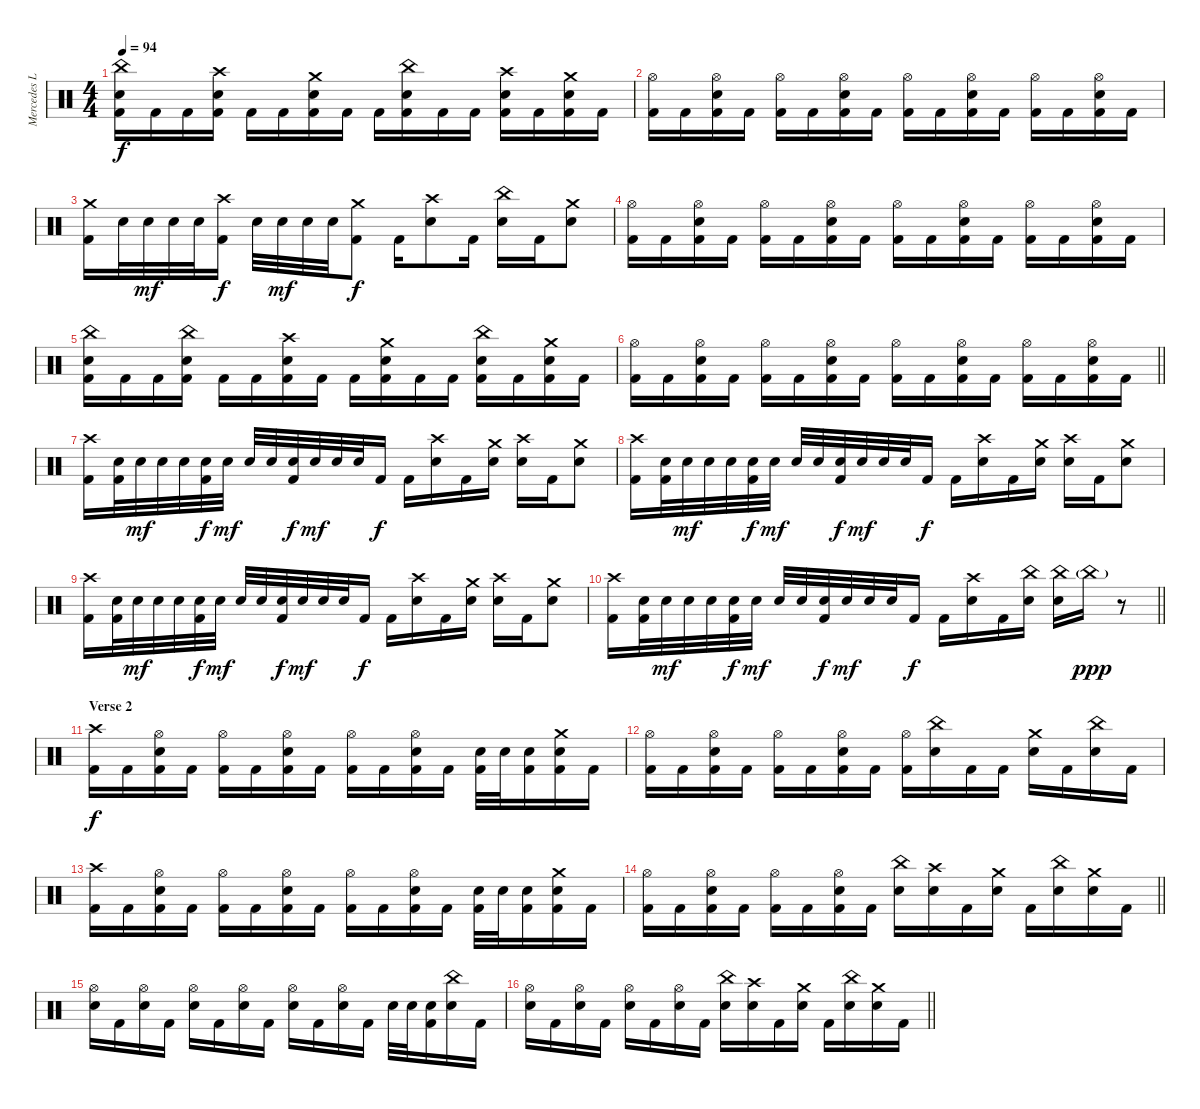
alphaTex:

\track ("Mercedes Lander" "Mercedes L") {instrument percussion}
\staff {score}
\articulation defaults
\ts (4 4)
\tempo 94
\clef neutral
\ks c
("China (hit)" "Snare (hit) 2" "Kick (hit) 2").16{dy f} "Kick (hit) 2".16 "Kick (hit) 2".16 ("Crash high (hit)" "Snare (hit) 2" "Kick (hit) 2").16 "Kick (hit) 2".16 "Kick (hit) 2".16 ("Crash medium (hit)" "Snare (hit) 2" "Kick (hit) 2").16 "Kick (hit) 2".16 "Kick (hit) 2".16 ("China (hit)" "Snare (hit) 2" "Kick (hit) 2").16 "Kick (hit) 2".16 "Kick (hit) 2".16 ("Crash high (hit)" "Snare (hit) 2" "Kick (hit) 2").16 "Kick (hit) 2".16 ("Crash medium (hit)" "Snare (hit) 2" "Kick (hit) 2").16 "Kick (hit) 2".16 |
("Hi-Hat (open)" "Kick (hit) 2").16 "Kick (hit) 2".16 ("Hi-Hat (open)" "Snare (hit) 2" "Kick (hit) 2").16 "Kick (hit) 2".16 ("Hi-Hat (open)" "Kick (hit) 2").16 "Kick (hit) 2".16 ("Hi-Hat (open)" "Snare (hit) 2" "Kick (hit) 2").16 "Kick (hit) 2".16 ("Hi-Hat (open)" "Kick (hit) 2").16 "Kick (hit) 2".16 ("Hi-Hat (open)" "Snare (hit) 2" "Kick (hit) 2").16 "Kick (hit) 2".16 ("Hi-Hat (open)" "Kick (hit) 2").16 "Kick (hit) 2".16 ("Hi-Hat (open)" "Snare (hit) 2" "Kick (hit) 2").16 "Kick (hit) 2".16 |
("Crash medium (hit)" "Kick (hit) 2").16 "Snare (hit) 2".32 "Snare (hit) 2".32{dy mf} "Snare (hit) 2".32 "Snare (hit) 2".32 ("Crash high (hit)" "Kick (hit) 2").16{dy f} "Snare (hit) 2".32 "Snare (hit) 2".32{dy mf} "Snare (hit) 2".32 "Snare (hit) 2".32 ("Crash medium (hit)" "Kick (hit) 2").8{dy f} "Kick (hit) 2".16 ("Crash high (hit)" "Snare (hit) 2").8 "Kick (hit) 2".16 ("China (hit)" "Snare (hit) 2").16 "Kick (hit) 2".16 ("Crash medium (hit)" "Snare (hit) 2").8 |
("Hi-Hat (open)" "Kick (hit) 2").16 "Kick (hit) 2".16 ("Hi-Hat (open)" "Snare (hit) 2" "Kick (hit) 2").16 "Kick (hit) 2".16 ("Hi-Hat (open)" "Kick (hit) 2").16 "Kick (hit) 2".16 ("Hi-Hat (open)" "Snare (hit) 2" "Kick (hit) 2").16 "Kick (hit) 2".16 ("Hi-Hat (open)" "Kick (hit) 2").16 "Kick (hit) 2".16 ("Hi-Hat (open)" "Snare (hit) 2" "Kick (hit) 2").16 "Kick (hit) 2".16 ("Hi-Hat (open)" "Kick (hit) 2").16 "Kick (hit) 2".16 ("Hi-Hat (open)" "Snare (hit) 2" "Kick (hit) 2").16 "Kick (hit) 2".16 |
("China (hit)" "Snare (hit) 2" "Kick (hit) 2").16 "Kick (hit) 2".16 "Kick (hit) 2".16 ("China (hit)" "Snare (hit) 2" "Kick (hit) 2").16 "Kick (hit) 2".16 "Kick (hit) 2".16 ("Crash high (hit)" "Snare (hit) 2" "Kick (hit) 2").16 "Kick (hit) 2".16 "Kick (hit) 2".16 ("Crash medium (hit)" "Snare (hit) 2" "Kick (hit) 2").16 "Kick (hit) 2".16 "Kick (hit) 2".16 ("China (hit)" "Snare (hit) 2" "Kick (hit) 2").16 "Kick (hit) 2".16 ("Crash medium (hit)" "Snare (hit) 2" "Kick (hit) 2").16 "Kick (hit) 2".16 |
\barLineRight lightlight
("Hi-Hat (open)" "Kick (hit) 2").16 "Kick (hit) 2".16 ("Hi-Hat (open)" "Snare (hit) 2" "Kick (hit) 2").16 "Kick (hit) 2".16 ("Hi-Hat (open)" "Kick (hit) 2").16 "Kick (hit) 2".16 ("Hi-Hat (open)" "Snare (hit) 2" "Kick (hit) 2").16 "Kick (hit) 2".16 ("Hi-Hat (open)" "Kick (hit) 2").16 "Kick (hit) 2".16 ("Hi-Hat (open)" "Snare (hit) 2" "Kick (hit) 2").16 "Kick (hit) 2".16 ("Hi-Hat (open)" "Kick (hit) 2").16 "Kick (hit) 2".16 ("Hi-Hat (open)" "Snare (hit) 2" "Kick (hit) 2").16 "Kick (hit) 2".16 |
("Crash high (hit)" "Kick (hit) 2").16 ("Snare (hit) 2" "Kick (hit) 2").32 "Snare (hit) 2".32{dy mf} "Snare (hit) 2".32 "Snare (hit) 2".32 ("Snare (hit) 2" "Kick (hit) 2").32{dy f} "Snare (hit) 2".32{dy mf} "Snare (hit) 2".32 "Snare (hit) 2".32 ("Snare (hit) 2" "Kick (hit) 2").32{dy f} "Snare (hit) 2".32{dy mf} "Snare (hit) 2".32 "Snare (hit) 2".32 "Kick (hit) 2".16{dy f} "Kick (hit) 2".16 ("Crash high (hit)" "Snare (hit) 2").16 "Kick (hit) 2".16 ("Crash medium (hit)" "Snare (hit) 2").16 ("Crash high (hit)" "Snare (hit) 2").16 "Kick (hit) 2".16 ("Crash medium (hit)" "Snare (hit) 2").8 |
("Crash high (hit)" "Kick (hit) 2").16 ("Snare (hit) 2" "Kick (hit) 2").32 "Snare (hit) 2".32{dy mf} "Snare (hit) 2".32 "Snare (hit) 2".32 ("Snare (hit) 2" "Kick (hit) 2").32{dy f} "Snare (hit) 2".32{dy mf} "Snare (hit) 2".32 "Snare (hit) 2".32 ("Snare (hit) 2" "Kick (hit) 2").32{dy f} "Snare (hit) 2".32{dy mf} "Snare (hit) 2".32 "Snare (hit) 2".32 "Kick (hit) 2".16{dy f} "Kick (hit) 2".16 ("Crash high (hit)" "Snare (hit) 2").16 "Kick (hit) 2".16 ("Crash medium (hit)" "Snare (hit) 2").16 ("Crash high (hit)" "Snare (hit) 2").16 "Kick (hit) 2".16 ("Crash medium (hit)" "Snare (hit) 2").8 |
("Crash high (hit)" "Kick (hit) 2").16 ("Snare (hit) 2" "Kick (hit) 2").32 "Snare (hit) 2".32{dy mf} "Snare (hit) 2".32 "Snare (hit) 2".32 ("Snare (hit) 2" "Kick (hit) 2").32{dy f} "Snare (hit) 2".32{dy mf} "Snare (hit) 2".32 "Snare (hit) 2".32 ("Snare (hit) 2" "Kick (hit) 2").32{dy f} "Snare (hit) 2".32{dy mf} "Snare (hit) 2".32 "Snare (hit) 2".32 "Kick (hit) 2".16{dy f} "Kick (hit) 2".16 ("Crash high (hit)" "Snare (hit) 2").16 "Kick (hit) 2".16 ("Crash medium (hit)" "Snare (hit) 2").16 ("Crash high (hit)" "Snare (hit) 2").16 "Kick (hit) 2".16 ("Crash medium (hit)" "Snare (hit) 2").8 |
\barLineRight lightlight
("Crash high (hit)" "Kick (hit) 2").16 ("Snare (hit) 2" "Kick (hit) 2").32 "Snare (hit) 2".32{dy mf} "Snare (hit) 2".32 "Snare (hit) 2".32 ("Snare (hit) 2" "Kick (hit) 2").32{dy f} "Snare (hit) 2".32{dy mf} "Snare (hit) 2".32 "Snare (hit) 2".32 ("Snare (hit) 2" "Kick (hit) 2").32{dy f} "Snare (hit) 2".32{dy mf} "Snare (hit) 2".32 "Snare (hit) 2".32 "Kick (hit) 2".16{dy f} "Kick (hit) 2".16 ("Crash high (hit)" "Snare (hit) 2").16 "Kick (hit) 2".16 ("China (hit)" "Snare (hit) 2").16 ("China (hit)" "Snare (hit) 2").16 "China (hit)"{g}.16{dy ppp} r.8 |
\section ("" "Verse 2")
("Crash high (hit)" "Kick (hit) 2").16{dy f} "Kick (hit) 2".16 ("Hi-Hat (open)" "Snare (hit) 2" "Kick (hit) 2").16 "Kick (hit) 2".16 ("Hi-Hat (open)" "Kick (hit) 2").16 "Kick (hit) 2".16 ("Hi-Hat (open)" "Snare (hit) 2" "Kick (hit) 2").16 "Kick (hit) 2".16 ("Hi-Hat (open)" "Kick (hit) 2").16 "Kick (hit) 2".16 ("Hi-Hat (open)" "Snare (hit) 2" "Kick (hit) 2").16 "Kick (hit) 2".16 ("Snare (hit) 2" "Kick (hit) 2").32 "Snare (hit) 2".32 ("Snare (hit) 2" "Kick (hit) 2").16 ("Crash medium (hit)" "Snare (hit) 2" "Kick (hit) 2").16 "Kick (hit) 2".16 |
("Hi-Hat (open)" "Kick (hit) 2").16 "Kick (hit) 2".16 ("Hi-Hat (open)" "Snare (hit) 2" "Kick (hit) 2").16 "Kick (hit) 2".16 ("Hi-Hat (open)" "Kick (hit) 2").16 "Kick (hit) 2".16 ("Hi-Hat (open)" "Snare (hit) 2" "Kick (hit) 2").16 "Kick (hit) 2".16 ("Hi-Hat (open)" "Kick (hit) 2").16 ("China (hit)" "Snare (hit) 2").16 "Kick (hit) 2".16 "Kick (hit) 2".16 ("Crash medium (hit)" "Snare (hit) 2").16 "Kick (hit) 2".16 ("China (hit)" "Snare (hit) 2").16 "Kick (hit) 2".16 |
("Crash high (hit)" "Kick (hit) 2").16 "Kick (hit) 2".16 ("Hi-Hat (open)" "Snare (hit) 2" "Kick (hit) 2").16 "Kick (hit) 2".16 ("Hi-Hat (open)" "Kick (hit) 2").16 "Kick (hit) 2".16 ("Hi-Hat (open)" "Snare (hit) 2" "Kick (hit) 2").16 "Kick (hit) 2".16 ("Hi-Hat (open)" "Kick (hit) 2").16 "Kick (hit) 2".16 ("Hi-Hat (open)" "Snare (hit) 2" "Kick (hit) 2").16 "Kick (hit) 2".16 ("Snare (hit) 2" "Kick (hit) 2").32 "Snare (hit) 2".32 ("Snare (hit) 2" "Kick (hit) 2").16 ("Crash medium (hit)" "Snare (hit) 2" "Kick (hit) 2").16 "Kick (hit) 2".16 |
\barLineRight lightlight
("Hi-Hat (open)" "Kick (hit) 2").16 "Kick (hit) 2".16 ("Hi-Hat (open)" "Snare (hit) 2" "Kick (hit) 2").16 "Kick (hit) 2".16 ("Hi-Hat (open)" "Kick (hit) 2").16 "Kick (hit) 2".16 ("Hi-Hat (open)" "Snare (hit) 2" "Kick (hit) 2").16 "Kick (hit) 2".16 ("China (hit)" "Snare (hit) 2").16 ("Crash high (hit)" "Snare (hit) 2").16 "Kick (hit) 2".16 ("Crash medium (hit)" "Snare (hit) 2").16 "Kick (hit) 2".16 ("China (hit)" "Snare (hit) 2").16 ("Crash medium (hit)" "Snare (hit) 2").16 "Kick (hit) 2".16 |
("Hi-Hat (open)" "Snare (hit) 2").16 "Kick (hit) 2".16 ("Hi-Hat (open)" "Snare (hit) 2").16 "Kick (hit) 2".16 ("Hi-Hat (open)" "Snare (hit) 2").16 "Kick (hit) 2".16 ("Hi-Hat (open)" "Snare (hit) 2").16 "Kick (hit) 2".16 ("Hi-Hat (open)" "Snare (hit) 2").16 "Kick (hit) 2".16 ("Hi-Hat (open)" "Snare (hit) 2").16 "Kick (hit) 2".16 "Snare (hit) 2".32 "Snare (hit) 2".32 ("Snare (hit) 2" "Kick (hit) 2").16 ("China (hit)" "Snare (hit) 2").16 "Kick (hit) 2".16 |
\barLineRight lightlight
("Hi-Hat (open)" "Snare (hit) 2").16 "Kick (hit) 2".16 ("Hi-Hat (open)" "Snare (hit) 2").16 "Kick (hit) 2".16 ("Hi-Hat (open)" "Snare (hit) 2").16 "Kick (hit) 2".16 ("Hi-Hat (open)" "Snare (hit) 2").16 "Kick (hit) 2".16 ("China (hit)" "Snare (hit) 2").16 ("Crash high (hit)" "Snare (hit) 2").16 "Kick (hit) 2".16 ("Crash medium (hit)" "Snare (hit) 2").16 "Kick (hit) 2".16 ("China (hit)" "Snare (hit) 2").16 ("Crash medium (hit)" "Snare (hit) 2").16 "Kick (hit) 2".16
